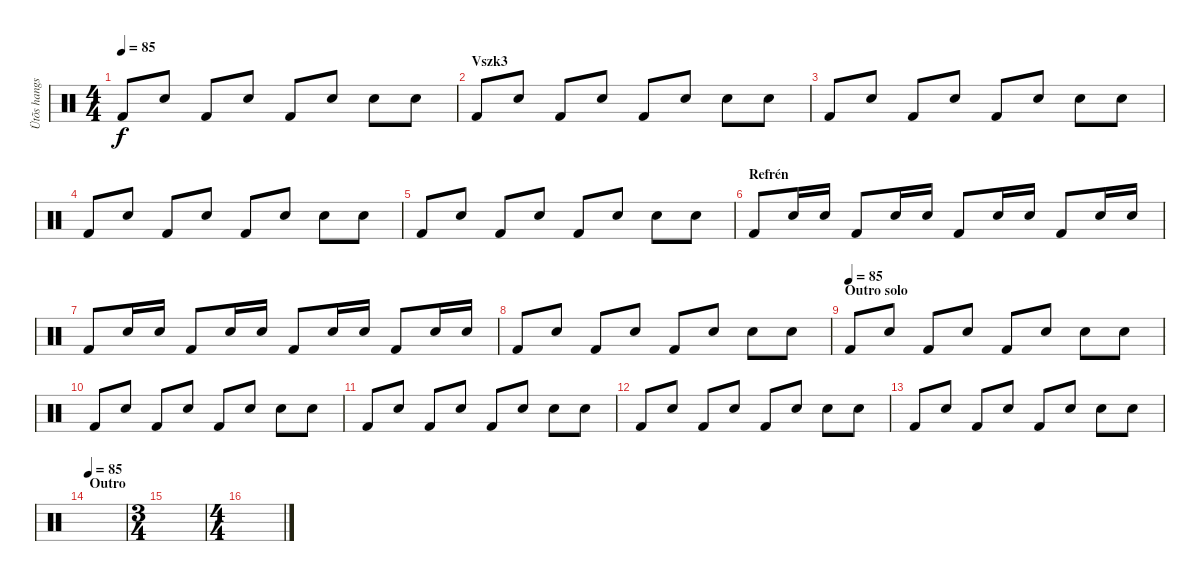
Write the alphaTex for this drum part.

\track ("Ütõs hangszer" "Ütõs hangs") {instrument percussion}
\staff {score}
\articulation defaults
\ts (4 4)
\tempo 85
\clef neutral
\ks c "Kick (hit) 2".8{dy f} "Electric Snare (hit)".8 "Kick (hit) 2".8 "Electric Snare (hit)".8 "Kick (hit) 2".8 "Electric Snare (hit)".8 "Electric Snare (hit)".8 "Electric Snare (hit)".8
|
\section ("" "Vszk3")
"Kick (hit) 2".8 "Electric Snare (hit)".8 "Kick (hit) 2".8 "Electric Snare (hit)".8 "Kick (hit) 2".8 "Electric Snare (hit)".8 "Electric Snare (hit)".8 "Electric Snare (hit)".8 |
"Kick (hit) 2".8 "Electric Snare (hit)".8 "Kick (hit) 2".8 "Electric Snare (hit)".8 "Kick (hit) 2".8 "Electric Snare (hit)".8 "Electric Snare (hit)".8 "Electric Snare (hit)".8 |
"Kick (hit) 2".8 "Electric Snare (hit)".8 "Kick (hit) 2".8 "Electric Snare (hit)".8 "Kick (hit) 2".8 "Electric Snare (hit)".8 "Electric Snare (hit)".8 "Electric Snare (hit)".8 |
"Kick (hit) 2".8 "Electric Snare (hit)".8 "Kick (hit) 2".8 "Electric Snare (hit)".8 "Kick (hit) 2".8 "Electric Snare (hit)".8 "Electric Snare (hit)".8 "Electric Snare (hit)".8 |
\section ("" "Refrén")
"Kick (hit) 2".8 "Electric Snare (hit)".16 "Electric Snare (hit)".16 "Kick (hit) 2".8 "Electric Snare (hit)".16 "Electric Snare (hit)".16 "Kick (hit) 2".8 "Electric Snare (hit)".16 "Electric Snare (hit)".16 "Kick (hit) 2".8 "Electric Snare (hit)".16 "Electric Snare (hit)".16 |
"Kick (hit) 2".8 "Electric Snare (hit)".16 "Electric Snare (hit)".16 "Kick (hit) 2".8 "Electric Snare (hit)".16 "Electric Snare (hit)".16 "Kick (hit) 2".8 "Electric Snare (hit)".16 "Electric Snare (hit)".16 "Kick (hit) 2".8 "Electric Snare (hit)".16 "Electric Snare (hit)".16 |
"Kick (hit) 2".8 "Electric Snare (hit)".8 "Kick (hit) 2".8 "Electric Snare (hit)".8 "Kick (hit) 2".8 "Electric Snare (hit)".8 "Electric Snare (hit)".8 "Electric Snare (hit)".8 |
\section ("" "Outro solo")
\tempo (85)
"Kick (hit) 2".8 "Electric Snare (hit)".8 "Kick (hit) 2".8 "Electric Snare (hit)".8 "Kick (hit) 2".8 "Electric Snare (hit)".8 "Electric Snare (hit)".8 "Electric Snare (hit)".8 |
"Kick (hit) 2".8 "Electric Snare (hit)".8 "Kick (hit) 2".8 "Electric Snare (hit)".8 "Kick (hit) 2".8 "Electric Snare (hit)".8 "Electric Snare (hit)".8 "Electric Snare (hit)".8 |
"Kick (hit) 2".8 "Electric Snare (hit)".8 "Kick (hit) 2".8 "Electric Snare (hit)".8 "Kick (hit) 2".8 "Electric Snare (hit)".8 "Electric Snare (hit)".8 "Electric Snare (hit)".8 |
"Kick (hit) 2".8 "Electric Snare (hit)".8 "Kick (hit) 2".8 "Electric Snare (hit)".8 "Kick (hit) 2".8 "Electric Snare (hit)".8 "Electric Snare (hit)".8 "Electric Snare (hit)".8 |
"Kick (hit) 2".8 "Electric Snare (hit)".8 "Kick (hit) 2".8 "Electric Snare (hit)".8 "Kick (hit) 2".8 "Electric Snare (hit)".8 "Electric Snare (hit)".8 "Electric Snare (hit)".8 |
\section ("" "Outro")
\tempo 85
|
\ts (3 4)
|
\ts (4 4)
